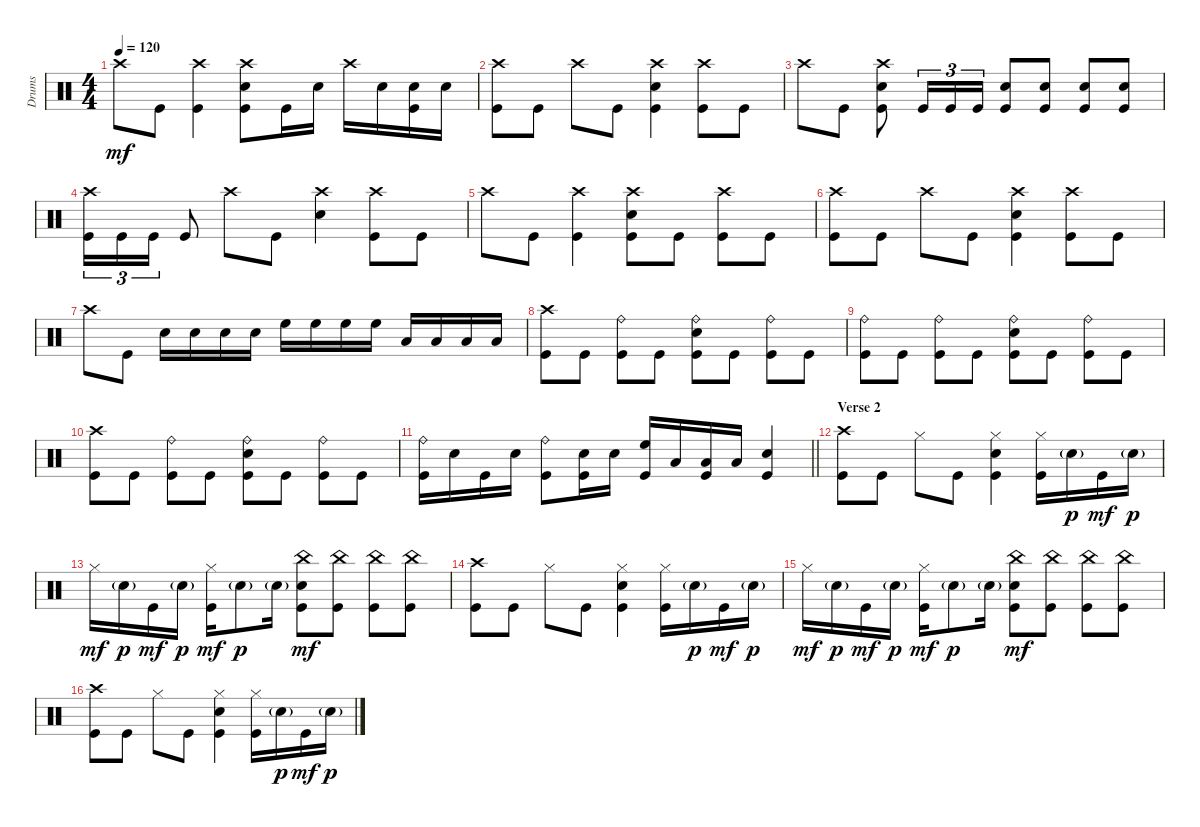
\track ("Drums" "Drums") {instrument percussion}
\staff {score}
\articulation defaults
\ts (4 4)
\tempo 120
\clef neutral
\ks c "Crash high (hit)".8{dy mf} "Kick (hit)".8
("Crash high (hit)" "Kick (hit)").4 ("Snare (hit) 2" "Crash high (hit)" "Kick (hit)").8 "Kick (hit)".16 "Snare (hit) 2".16 "Crash high (hit)".16 "Snare (hit) 2".16 ("Kick (hit)" "Snare (hit) 2").16 "Snare (hit) 2".16 |
("Crash high (hit)" "Kick (hit)").8 "Kick (hit)".8 "Crash high (hit)".8 "Kick (hit)".8 ("Snare (hit) 2" "Crash high (hit)" "Kick (hit)").4 ("Crash high (hit)" "Kick (hit)").8 "Kick (hit)".8 |
"Crash high (hit)".8 "Kick (hit)".8 ("Snare (hit) 2" "Crash high (hit)" "Kick (hit)").8 "Kick (hit)".16{tu (3 2)} "Kick (hit)".16{tu (3 2)} "Kick (hit)".16{tu (3 2)} ("Kick (hit)" "Snare (hit) 2").8 ("Kick (hit)" "Snare (hit) 2").8 ("Kick (hit)" "Snare (hit) 2").8 ("Kick (hit)" "Snare (hit) 2").8 |
("Kick (hit)" "Crash high (hit)").16{tu (3 2)} "Kick (hit)".16{tu (3 2)} "Kick (hit)".16{tu (3 2)} "Kick (hit)".8 "Crash high (hit)".8 "Kick (hit)".8 ("Snare (hit) 2" "Crash high (hit)").4 ("Kick (hit)" "Crash high (hit)").8 "Kick (hit)".8 |
"Crash high (hit)".8 "Kick (hit)".8 ("Kick (hit)" "Crash high (hit)").4 ("Kick (hit)" "Snare (hit) 2" "Crash high (hit)").8 "Kick (hit)".8 ("Crash high (hit)" "Kick (hit)").8 "Kick (hit)".8 |
("Crash high (hit)" "Kick (hit)").8 "Kick (hit)".8 "Crash high (hit)".8 "Kick (hit)".8 ("Snare (hit) 2" "Crash high (hit)" "Kick (hit)").4 ("Crash high (hit)" "Kick (hit)").8 "Kick (hit)".8 |
"Crash high (hit)".8 "Kick (hit)".8 "Snare (hit) 2".16 "Snare (hit) 2".16 "Snare (hit) 2".16 "Snare (hit) 2".16 "High Floor Tom (hit)".16 "High Floor Tom (hit)".16 "High Floor Tom (hit)".16 "High Floor Tom (hit)".16 "Low Tom (hit)".16 "Low Tom (hit)".16 "Low Tom (hit)".16 "Low Tom (hit)".16 |
("Kick (hit)" "Crash high (hit)").8 "Kick (hit)".8 ("Kick (hit)" "Ride (bell)").8 "Kick (hit)".8 ("Kick (hit)" "Snare (hit) 2" "Ride (bell)").8 "Kick (hit)".8 ("Kick (hit)" "Ride (bell)").8 "Kick (hit)".8 |
("Ride (bell)" "Kick (hit)").8 "Kick (hit)".8 ("Ride (bell)" "Kick (hit)").8 "Kick (hit)".8 ("Snare (hit) 2" "Ride (bell)" "Kick (hit)").8 "Kick (hit)".8 ("Ride (bell)" "Kick (hit)").8 "Kick (hit)".8 |
("Crash high (hit)" "Kick (hit)").8 "Kick (hit)".8 ("Ride (bell)" "Kick (hit)").8 "Kick (hit)".8 ("Snare (hit) 2" "Ride (bell)" "Kick (hit)").8 "Kick (hit)".8 ("Ride (bell)" "Kick (hit)").8 "Kick (hit)".8 |
\barLineRight lightlight
("Kick (hit)" "Ride (bell)").16 "Snare (hit) 2".16 "Kick (hit)".16 "Snare (hit) 2".16 ("Ride (bell)" "Kick (hit)").8 ("Snare (hit) 2" "Kick (hit)").16 "Snare (hit) 2".16 ("High Floor Tom (hit)" "Kick (hit)").16 "Low Tom (hit)".16 ("Low Floor Tom (hit)" "Kick (hit)").16 "Low Floor Tom (hit)".16 ("Snare (hit) 2" "Kick (hit)").4 |
\section ("" "Verse 2")
("Crash high (hit)" "Kick (hit)").8{volume 11} "Kick (hit)".8 "Hi-Hat (closed)".8 "Kick (hit)".8 ("Snare (hit) 2" "Hi-Hat (closed)" "Kick (hit)").4 ("Hi-Hat (closed)" "Kick (hit)").16 "Snare (hit) 2"{g}.16{dy p} "Kick (hit)".16{dy mf} "Snare (hit) 2"{g}.16{dy p} |
"Hi-Hat (closed)".16{dy mf} "Snare (hit) 2"{g}.16{dy p} "Kick (hit)".16{dy mf} "Snare (hit) 2"{g}.16{dy p} ("Hi-Hat (closed)" "Kick (hit)").16{dy mf} "Snare (hit) 2"{g}.8{dy p} "Snare (hit) 2"{g}.16 ("Kick (hit)" "Snare (hit) 2" "China (hit)").8{dy mf} ("Kick (hit)" "China (hit)").8 ("Kick (hit)" "China (hit)").8 ("Kick (hit)" "China (hit)").8 |
("Kick (hit)" "Crash high (hit)").8 "Kick (hit)".8 "Hi-Hat (closed)".8 "Kick (hit)".8 ("Kick (hit)" "Snare (hit) 2" "Hi-Hat (closed)").4 ("Kick (hit)" "Hi-Hat (closed)").16 "Snare (hit) 2"{g}.16{dy p} "Kick (hit)".16{dy mf} "Snare (hit) 2"{g}.16{dy p} |
"Hi-Hat (closed)".16{dy mf} "Snare (hit) 2"{g}.16{dy p} "Kick (hit)".16{dy mf} "Snare (hit) 2"{g}.16{dy p} ("Kick (hit)" "Hi-Hat (closed)").16{dy mf} "Snare (hit) 2"{g}.8{dy p} "Snare (hit) 2"{g}.16 ("Snare (hit) 2" "China (hit)" "Kick (hit)").8{dy mf} ("China (hit)" "Kick (hit)").8 ("China (hit)" "Kick (hit)").8 ("China (hit)" "Kick (hit)").8 |
("Kick (hit)" "Crash high (hit)").8 "Kick (hit)".8 "Hi-Hat (closed)".8 "Kick (hit)".8 ("Kick (hit)" "Snare (hit) 2" "Hi-Hat (closed)").4 ("Kick (hit)" "Hi-Hat (closed)").16 "Snare (hit) 2"{g}.16{dy p} "Kick (hit)".16{dy mf} "Snare (hit) 2"{g}.16{dy p}
